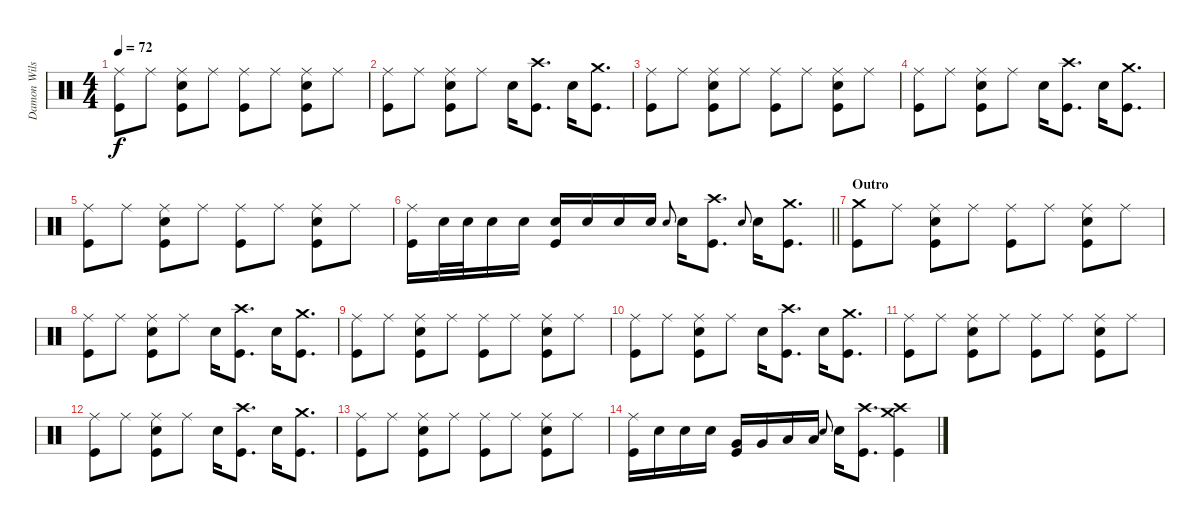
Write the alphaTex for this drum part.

\track ("Damon Wilson" "Damon Wils") {instrument percussion}
\staff {score}
\articulation defaults
\ts (4 4)
\tempo 72
\clef neutral
\ks c
("Ride (middle)" "Kick (hit)").8{dy f} "Ride (middle)".8 ("Ride (middle)" "Electric Snare (hit)" "Kick (hit)").8 "Ride (middle)".8 ("Ride (middle)" "Kick (hit)").8 "Ride (middle)".8 ("Ride (middle)" "Electric Snare (hit)" "Kick (hit)").8 "Ride (middle)".8 |
("Ride (middle)" "Kick (hit)").8 "Ride (middle)".8 ("Ride (middle)" "Electric Snare (hit)" "Kick (hit)").8 "Ride (middle)".8 "Electric Snare (hit)".16 ("Crash high (hit)" "Kick (hit)").8{d} "Electric Snare (hit)".16 ("Crash medium (hit)" "Kick (hit)").8{d} |
("Ride (middle)" "Kick (hit)").8 "Ride (middle)".8 ("Ride (middle)" "Electric Snare (hit)" "Kick (hit)").8 "Ride (middle)".8 ("Ride (middle)" "Kick (hit)").8 "Ride (middle)".8 ("Ride (middle)" "Electric Snare (hit)" "Kick (hit)").8 "Ride (middle)".8 |
("Ride (middle)" "Kick (hit)").8 "Ride (middle)".8 ("Ride (middle)" "Electric Snare (hit)" "Kick (hit)").8 "Ride (middle)".8 "Electric Snare (hit)".16 ("Crash high (hit)" "Kick (hit)").8{d} "Electric Snare (hit)".16 ("Crash medium (hit)" "Kick (hit)").8{d} |
("Ride (middle)" "Kick (hit)").8 "Ride (middle)".8 ("Ride (middle)" "Electric Snare (hit)" "Kick (hit)").8 "Ride (middle)".8 ("Ride (middle)" "Kick (hit)").8 "Ride (middle)".8 ("Ride (middle)" "Electric Snare (hit)" "Kick (hit)").8 "Ride (middle)".8 |
\barLineRight lightlight
("Ride (middle)" "Kick (hit)").16 "Electric Snare (hit)".32 "Electric Snare (hit)".32 "Electric Snare (hit)".16 "Electric Snare (hit)".16 ("Electric Snare (hit)" "Kick (hit)").16 "Electric Snare (hit)".16 "Electric Snare (hit)".16 "Electric Snare (hit)".16 "Electric Snare (hit)".8{gr onbeat} "Electric Snare (hit)".16 ("Crash high (hit)" "Kick (hit)").8{d} "Electric Snare (hit)".8{gr onbeat} "Electric Snare (hit)".16 ("Crash medium (hit)" "Kick (hit)").8{d} |
\section ("" "Outro")
("Crash medium (hit)" "Kick (hit)").8 "Ride (middle)".8 ("Ride (middle)" "Electric Snare (hit)" "Kick (hit)").8 "Ride (middle)".8 ("Ride (middle)" "Kick (hit)").8 "Ride (middle)".8 ("Ride (middle)" "Electric Snare (hit)" "Kick (hit)").8 "Ride (middle)".8 |
("Ride (middle)" "Kick (hit)").8 "Ride (middle)".8 ("Ride (middle)" "Electric Snare (hit)" "Kick (hit)").8 "Ride (middle)".8 "Electric Snare (hit)".16 ("Crash high (hit)" "Kick (hit)").8{d} "Electric Snare (hit)".16 ("Crash medium (hit)" "Kick (hit)").8{d} |
("Ride (middle)" "Kick (hit)").8 "Ride (middle)".8 ("Ride (middle)" "Electric Snare (hit)" "Kick (hit)").8 "Ride (middle)".8 ("Ride (middle)" "Kick (hit)").8 "Ride (middle)".8 ("Ride (middle)" "Electric Snare (hit)" "Kick (hit)").8 "Ride (middle)".8 |
("Ride (middle)" "Kick (hit)").8 "Ride (middle)".8 ("Ride (middle)" "Electric Snare (hit)" "Kick (hit)").8 "Ride (middle)".8 "Electric Snare (hit)".16 ("Crash high (hit)" "Kick (hit)").8{d} "Electric Snare (hit)".16 ("Crash medium (hit)" "Kick (hit)").8{d} |
("Ride (middle)" "Kick (hit)").8 "Ride (middle)".8 ("Ride (middle)" "Electric Snare (hit)" "Kick (hit)").8 "Ride (middle)".8 ("Ride (middle)" "Kick (hit)").8 "Ride (middle)".8 ("Ride (middle)" "Electric Snare (hit)" "Kick (hit)").8 "Ride (middle)".8 |
("Ride (middle)" "Kick (hit)").8 "Ride (middle)".8 ("Ride (middle)" "Electric Snare (hit)" "Kick (hit)").8 "Ride (middle)".8 "Electric Snare (hit)".16 ("Crash high (hit)" "Kick (hit)").8{d} "Electric Snare (hit)".16 ("Crash medium (hit)" "Kick (hit)").8{d} |
("Ride (middle)" "Kick (hit)").8 "Ride (middle)".8 ("Ride (middle)" "Electric Snare (hit)" "Kick (hit)").8 "Ride (middle)".8 ("Ride (middle)" "Kick (hit)").8 "Ride (middle)".8 ("Ride (middle)" "Electric Snare (hit)" "Kick (hit)").8 "Ride (middle)".8 |
("Ride (middle)" "Kick (hit)").16 "Electric Snare (hit)".16 "Electric Snare (hit)".16 "Electric Snare (hit)".16 ("Very Low Tom (hit)" "Kick (hit)").16 "Very Low Tom (hit)".16 "Low Floor Tom (hit)".16 "Low Floor Tom (hit)".16 "Electric Snare (hit)".8{gr onbeat} "Electric Snare (hit)".16 ("Crash high (hit)" "Kick (hit)").8{d} ("Crash medium (hit)" "Crash high (hit)" "Kick (hit)").4
